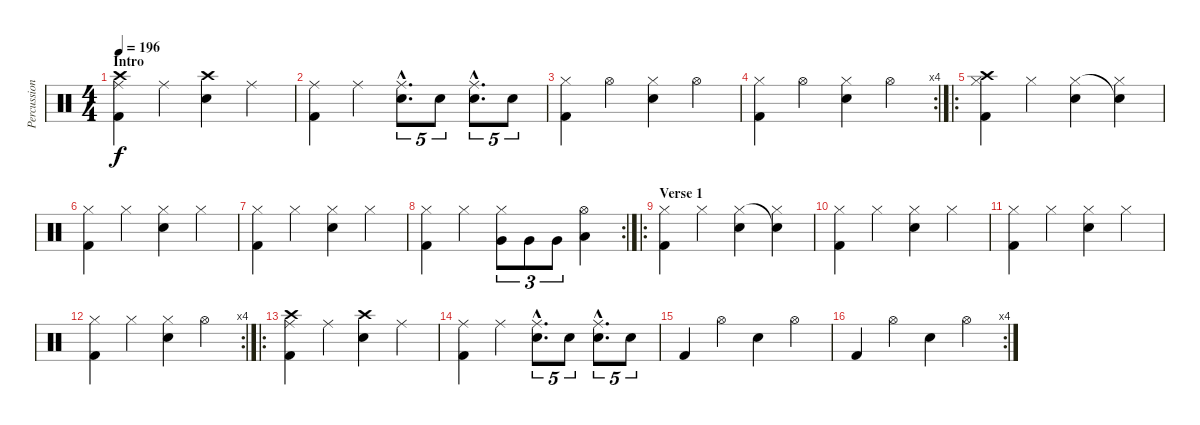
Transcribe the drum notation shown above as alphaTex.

\track ("Percussion" "Percussion") {instrument percussion}
\staff {score}
\articulation defaults
\ts (4 4)
\section ("" "Intro")
\tempo 196
\clef neutral
\ks c
("Crash high (hit)" "Ride (middle)" "Kick (hit) 2").4{dy f} "Ride (middle)".4 ("Crash high (hit)" "Snare (hit) 2").4 "Ride (middle)".4 |
("Ride (middle)" "Kick (hit) 2").4 "Ride (middle)".4 ("Ride (middle)"{hac} "Snare (hit) 2"{hac}).8{d tu (5 4)} "Snare (hit) 2".8{tu (5 4)} ("Ride (middle)"{hac} "Snare (hit) 2"{hac}).8{d tu (5 4)} "Snare (hit) 2".8{tu (5 4)} |
("Hi-Hat (closed)" "Kick (hit) 2").4 "Hi-Hat (open)".4 ("Hi-Hat (closed)" "Snare (hit) 2").4 "Hi-Hat (open)".4 |
\rc 4
("Hi-Hat (closed)" "Kick (hit) 2").4 "Hi-Hat (open)".4 ("Hi-Hat (closed)" "Snare (hit) 2").4 "Hi-Hat (open)".4 |
\ro
("Crash high (hit)" "Hi-Hat (closed)" "Kick (hit) 2").4 "Hi-Hat (closed)".4 ("Hi-Hat (closed)" "Snare (hit) 2").4 ("Snare (hit)"{t} "Hi-Hat (closed)").4 |
("Hi-Hat (closed)" "Kick (hit) 2").4 "Hi-Hat (closed)".4 ("Hi-Hat (closed)" "Snare (hit) 2").4 "Hi-Hat (closed)".4 |
("Hi-Hat (closed)" "Kick (hit) 2").4 "Hi-Hat (closed)".4 ("Hi-Hat (closed)" "Snare (hit) 2").4 "Hi-Hat (closed)".4 |
\rc 2
("Hi-Hat (closed)" "Kick (hit) 2").4 "Hi-Hat (closed)".4 ("Hi-Hat (closed)" "Very Low Tom (hit)").8{tu (3 2)} "Very Low Tom (hit)".8{tu (3 2)} "Very Low Tom (hit)".8{tu (3 2)} ("Hi-Hat (open)" "Low Floor Tom (hit)").4 |
\ro
\section ("" "Verse 1")
("Hi-Hat (closed)" "Kick (hit) 2").4 "Hi-Hat (closed)".4 ("Hi-Hat (closed)" "Snare (hit) 2").4 ("Snare (hit)"{t} "Hi-Hat (closed)").4 |
("Hi-Hat (closed)" "Kick (hit) 2").4 "Hi-Hat (closed)".4 ("Hi-Hat (closed)" "Snare (hit) 2").4 "Hi-Hat (closed)".4 |
("Hi-Hat (closed)" "Kick (hit) 2").4 "Hi-Hat (closed)".4 ("Hi-Hat (closed)" "Snare (hit) 2").4 "Hi-Hat (closed)".4 |
\rc 4
("Hi-Hat (closed)" "Kick (hit) 2").4 "Hi-Hat (closed)".4 ("Hi-Hat (closed)" "Snare (hit) 2").4 "Hi-Hat (open)".4 |
\ro
("Crash high (hit)" "Ride (middle)" "Kick (hit) 2").4 "Ride (middle)".4 ("Crash high (hit)" "Snare (hit) 2").4 "Ride (middle)".4 |
("Ride (middle)" "Kick (hit) 2").4 "Ride (middle)".4 ("Ride (middle)"{hac} "Snare (hit) 2"{hac}).8{d tu (5 4)} "Snare (hit) 2".8{tu (5 4)} ("Ride (middle)"{hac} "Snare (hit) 2"{hac}).8{d tu (5 4)} "Snare (hit) 2".8{tu (5 4)} |
"Kick (hit) 2".4 "Hi-Hat (open)".4 "Snare (hit) 2".4 "Hi-Hat (open)".4 |
\rc 4 "Kick (hit) 2".4 "Hi-Hat (open)".4 "Snare (hit) 2".4 "Hi-Hat (open)".4
